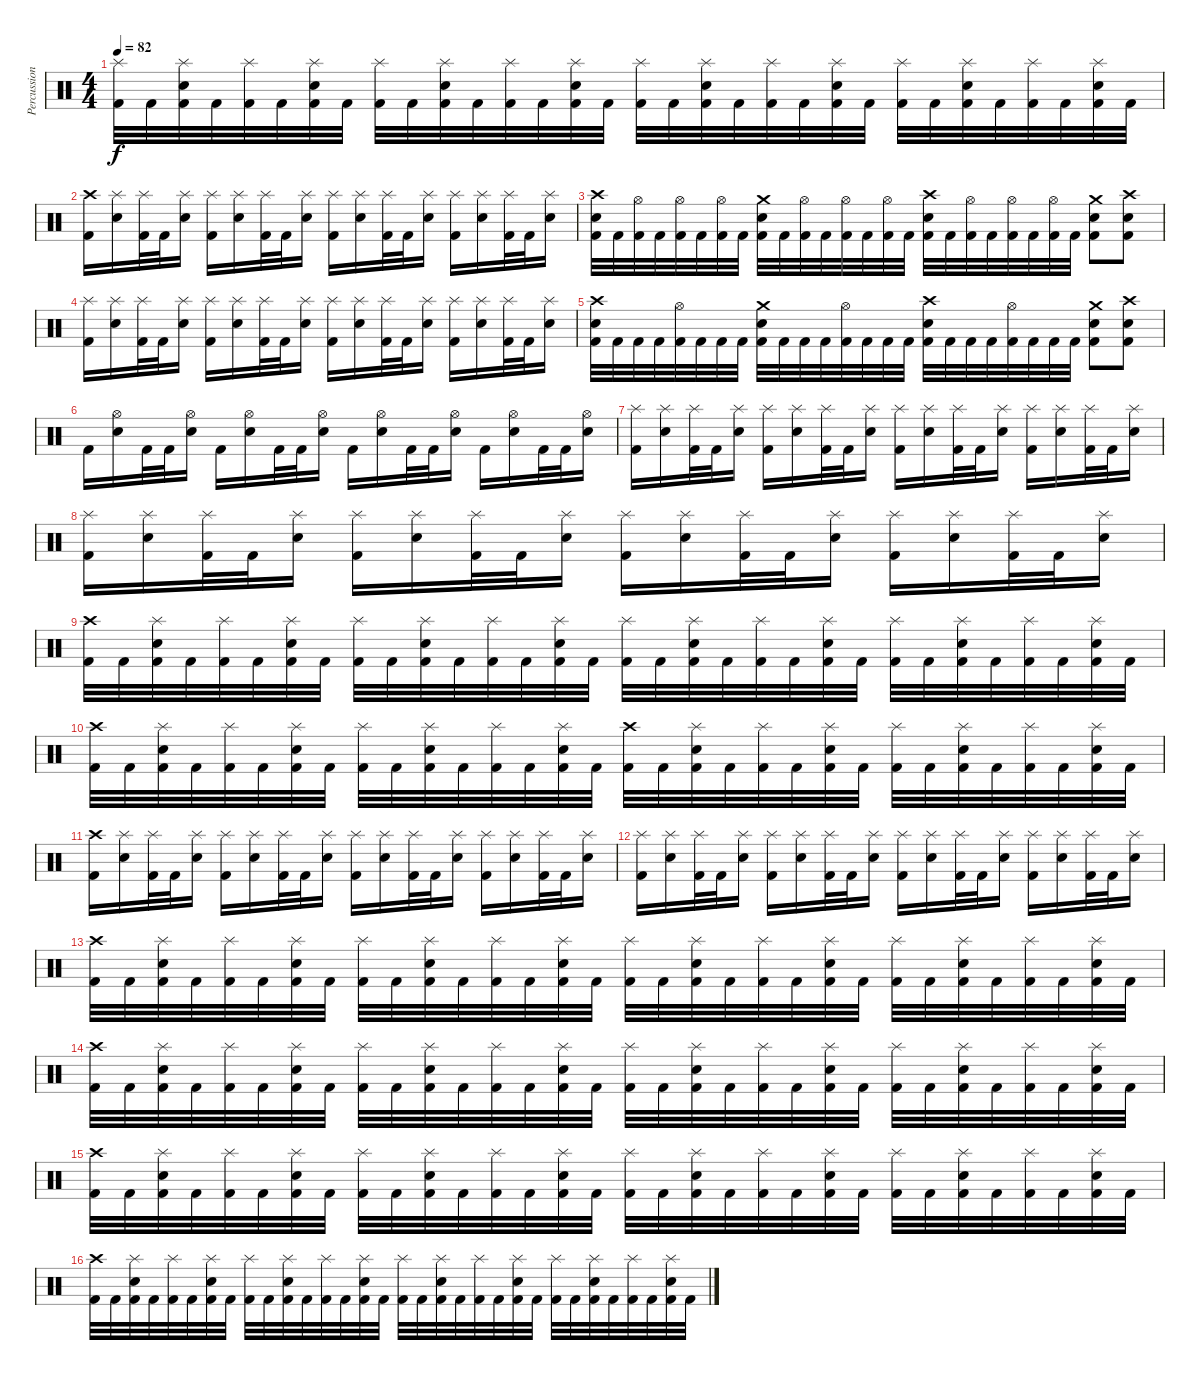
\track ("Percussion" "Percussion") {instrument percussion}
\staff {score}
\articulation defaults
\ts (4 4)
\tempo 82
\clef neutral
\ks c
("Splash (hit)" "Kick (hit) 2").32{dy f} "Kick (hit) 2".32 ("Splash (hit)" "Electric Snare (hit)" "Kick (hit) 2").32 "Kick (hit) 2".32 ("Splash (hit)" "Kick (hit) 2").32 "Kick (hit) 2".32 ("Splash (hit)" "Electric Snare (hit)" "Kick (hit) 2").32 "Kick (hit) 2".32 ("Splash (hit)" "Kick (hit) 2").32 "Kick (hit) 2".32 ("Splash (hit)" "Electric Snare (hit)" "Kick (hit) 2").32 "Kick (hit) 2".32 ("Splash (hit)" "Kick (hit) 2").32 "Kick (hit) 2".32 ("Splash (hit)" "Electric Snare (hit)" "Kick (hit) 2").32 "Kick (hit) 2".32 ("Splash (hit)" "Kick (hit) 2").32 "Kick (hit) 2".32 ("Splash (hit)" "Electric Snare (hit)" "Kick (hit) 2").32 "Kick (hit) 2".32 ("Splash (hit)" "Kick (hit) 2").32 "Kick (hit) 2".32 ("Splash (hit)" "Electric Snare (hit)" "Kick (hit) 2").32 "Kick (hit) 2".32 ("Splash (hit)" "Kick (hit) 2").32 "Kick (hit) 2".32 ("Splash (hit)" "Electric Snare (hit)" "Kick (hit) 2").32 "Kick (hit) 2".32 ("Splash (hit)" "Kick (hit) 2").32 "Kick (hit) 2".32 ("Splash (hit)" "Electric Snare (hit)" "Kick (hit) 2").32 "Kick (hit) 2".32 |
("Crash high (hit)" "Kick (hit) 2").16 ("Splash (hit)" "Electric Snare (hit)").16 ("Splash (hit)" "Kick (hit) 2").32 "Kick (hit) 2".32 ("Splash (hit)" "Electric Snare (hit)").16 ("Splash (hit)" "Kick (hit) 2").16 ("Splash (hit)" "Electric Snare (hit)").16 ("Splash (hit)" "Kick (hit) 2").32 "Kick (hit) 2".32 ("Splash (hit)" "Electric Snare (hit)").16 ("Splash (hit)" "Kick (hit) 2").16 ("Splash (hit)" "Electric Snare (hit)").16 ("Splash (hit)" "Kick (hit) 2").32 "Kick (hit) 2".32 ("Splash (hit)" "Electric Snare (hit)").16 ("Splash (hit)" "Kick (hit) 2").16 ("Splash (hit)" "Electric Snare (hit)").16 ("Splash (hit)" "Kick (hit) 2").32 "Kick (hit) 2".32 ("Splash (hit)" "Electric Snare (hit)").16 |
\section ("" "")
("Crash high (hit)" "Electric Snare (hit)" "Kick (hit) 2").32 "Kick (hit) 2".32 ("Hi-Hat (open)" "Kick (hit) 2").32 "Kick (hit) 2".32 ("Hi-Hat (open)" "Kick (hit) 2").32 "Kick (hit) 2".32 ("Hi-Hat (open)" "Kick (hit) 2").32 "Kick (hit) 2".32 ("Crash medium (hit)" "Electric Snare (hit)" "Kick (hit) 2").32 "Kick (hit) 2".32 ("Hi-Hat (open)" "Kick (hit) 2").32 "Kick (hit) 2".32 ("Hi-Hat (open)" "Kick (hit) 2").32 "Kick (hit) 2".32 ("Hi-Hat (open)" "Kick (hit) 2").32 "Kick (hit) 2".32 ("Crash high (hit)" "Electric Snare (hit)" "Kick (hit) 2").32 "Kick (hit) 2".32 ("Hi-Hat (open)" "Kick (hit) 2").32 "Kick (hit) 2".32 ("Hi-Hat (open)" "Kick (hit) 2").32 "Kick (hit) 2".32 ("Hi-Hat (open)" "Kick (hit) 2").32 "Kick (hit) 2".32 ("Crash medium (hit)" "Electric Snare (hit)" "Kick (hit) 2").8 ("Crash high (hit)" "Electric Snare (hit)" "Kick (hit) 2").8 |
("Splash (hit)" "Kick (hit) 2").16 ("Splash (hit)" "Electric Snare (hit)").16 ("Splash (hit)" "Kick (hit) 2").32 "Kick (hit) 2".32 ("Splash (hit)" "Electric Snare (hit)").16 ("Splash (hit)" "Kick (hit) 2").16 ("Splash (hit)" "Electric Snare (hit)").16 ("Splash (hit)" "Kick (hit) 2").32 "Kick (hit) 2".32 ("Splash (hit)" "Electric Snare (hit)").16 ("Splash (hit)" "Kick (hit) 2").16 ("Splash (hit)" "Electric Snare (hit)").16 ("Splash (hit)" "Kick (hit) 2").32 "Kick (hit) 2".32 ("Splash (hit)" "Electric Snare (hit)").16 ("Splash (hit)" "Kick (hit) 2").16 ("Splash (hit)" "Electric Snare (hit)").16 ("Splash (hit)" "Kick (hit) 2").32 "Kick (hit) 2".32 ("Splash (hit)" "Electric Snare (hit)").16 |
("Crash high (hit)" "Electric Snare (hit)" "Kick (hit) 2").32 "Kick (hit) 2".32 "Kick (hit) 2".32 "Kick (hit) 2".32 ("Hi-Hat (open)" "Kick (hit) 2").32 "Kick (hit) 2".32 "Kick (hit) 2".32 "Kick (hit) 2".32 ("Crash medium (hit)" "Electric Snare (hit)" "Kick (hit) 2").32 "Kick (hit) 2".32 "Kick (hit) 2".32 "Kick (hit) 2".32 ("Hi-Hat (open)" "Kick (hit) 2").32 "Kick (hit) 2".32 "Kick (hit) 2".32 "Kick (hit) 2".32 ("Crash high (hit)" "Electric Snare (hit)" "Kick (hit) 2").32 "Kick (hit) 2".32 "Kick (hit) 2".32 "Kick (hit) 2".32 ("Hi-Hat (open)" "Kick (hit) 2").32 "Kick (hit) 2".32 "Kick (hit) 2".32 "Kick (hit) 2".32 ("Crash medium (hit)" "Electric Snare (hit)" "Kick (hit) 2").8 ("Crash high (hit)" "Electric Snare (hit)" "Kick (hit) 2").8 |
"Kick (hit) 2".16 ("Hi-Hat (open)" "Electric Snare (hit)").16 "Kick (hit) 2".32 "Kick (hit) 2".32 ("Hi-Hat (open)" "Electric Snare (hit)").16 "Kick (hit) 2".16 ("Hi-Hat (open)" "Electric Snare (hit)").16 "Kick (hit) 2".32 "Kick (hit) 2".32 ("Hi-Hat (open)" "Electric Snare (hit)").16 "Kick (hit) 2".16 ("Hi-Hat (open)" "Electric Snare (hit)").16 "Kick (hit) 2".32 "Kick (hit) 2".32 ("Hi-Hat (open)" "Electric Snare (hit)").16 "Kick (hit) 2".16 ("Hi-Hat (open)" "Electric Snare (hit)").16 "Kick (hit) 2".32 "Kick (hit) 2".32 ("Hi-Hat (open)" "Electric Snare (hit)").16 |
\section ("" "")
("Splash (hit)" "Kick (hit) 2").16 ("Splash (hit)" "Electric Snare (hit)").16 ("Splash (hit)" "Kick (hit) 2").32 "Kick (hit) 2".32 ("Splash (hit)" "Electric Snare (hit)").16 ("Splash (hit)" "Kick (hit) 2").16 ("Splash (hit)" "Electric Snare (hit)").16 ("Splash (hit)" "Kick (hit) 2").32 "Kick (hit) 2".32 ("Splash (hit)" "Electric Snare (hit)").16 ("Splash (hit)" "Kick (hit) 2").16 ("Splash (hit)" "Electric Snare (hit)").16 ("Splash (hit)" "Kick (hit) 2").32 "Kick (hit) 2".32 ("Splash (hit)" "Electric Snare (hit)").16 ("Splash (hit)" "Kick (hit) 2").16 ("Splash (hit)" "Electric Snare (hit)").16 ("Splash (hit)" "Kick (hit) 2").32 "Kick (hit) 2".32 ("Splash (hit)" "Electric Snare (hit)").16 |
("Splash (hit)" "Kick (hit) 2").16 ("Splash (hit)" "Electric Snare (hit)").16 ("Splash (hit)" "Kick (hit) 2").32 "Kick (hit) 2".32 ("Splash (hit)" "Electric Snare (hit)").16 ("Splash (hit)" "Kick (hit) 2").16 ("Splash (hit)" "Electric Snare (hit)").16 ("Splash (hit)" "Kick (hit) 2").32 "Kick (hit) 2".32 ("Splash (hit)" "Electric Snare (hit)").16 ("Splash (hit)" "Kick (hit) 2").16 ("Splash (hit)" "Electric Snare (hit)").16 ("Splash (hit)" "Kick (hit) 2").32 "Kick (hit) 2".32 ("Splash (hit)" "Electric Snare (hit)").16 ("Splash (hit)" "Kick (hit) 2").16 ("Splash (hit)" "Electric Snare (hit)").16 ("Splash (hit)" "Kick (hit) 2").32 "Kick (hit) 2".32 ("Splash (hit)" "Electric Snare (hit)").16 |
("Crash high (hit)" "Kick (hit) 2").32 "Kick (hit) 2".32 ("Splash (hit)" "Electric Snare (hit)" "Kick (hit) 2").32 "Kick (hit) 2".32 ("Splash (hit)" "Kick (hit) 2").32 "Kick (hit) 2".32 ("Splash (hit)" "Electric Snare (hit)" "Kick (hit) 2").32 "Kick (hit) 2".32 ("Splash (hit)" "Kick (hit) 2").32 "Kick (hit) 2".32 ("Splash (hit)" "Electric Snare (hit)" "Kick (hit) 2").32 "Kick (hit) 2".32 ("Splash (hit)" "Kick (hit) 2").32 "Kick (hit) 2".32 ("Splash (hit)" "Electric Snare (hit)" "Kick (hit) 2").32 "Kick (hit) 2".32 ("Splash (hit)" "Kick (hit) 2").32 "Kick (hit) 2".32 ("Splash (hit)" "Electric Snare (hit)" "Kick (hit) 2").32 "Kick (hit) 2".32 ("Splash (hit)" "Kick (hit) 2").32 "Kick (hit) 2".32 ("Splash (hit)" "Electric Snare (hit)" "Kick (hit) 2").32 "Kick (hit) 2".32 ("Splash (hit)" "Kick (hit) 2").32 "Kick (hit) 2".32 ("Splash (hit)" "Electric Snare (hit)" "Kick (hit) 2").32 "Kick (hit) 2".32 ("Splash (hit)" "Kick (hit) 2").32 "Kick (hit) 2".32 ("Splash (hit)" "Electric Snare (hit)" "Kick (hit) 2").32 "Kick (hit) 2".32 |
("Crash high (hit)" "Kick (hit) 2").32 "Kick (hit) 2".32 ("Splash (hit)" "Electric Snare (hit)" "Kick (hit) 2").32 "Kick (hit) 2".32 ("Splash (hit)" "Kick (hit) 2").32 "Kick (hit) 2".32 ("Splash (hit)" "Electric Snare (hit)" "Kick (hit) 2").32 "Kick (hit) 2".32 ("Splash (hit)" "Kick (hit) 2").32 "Kick (hit) 2".32 ("Splash (hit)" "Electric Snare (hit)" "Kick (hit) 2").32 "Kick (hit) 2".32 ("Splash (hit)" "Kick (hit) 2").32 "Kick (hit) 2".32 ("Splash (hit)" "Electric Snare (hit)" "Kick (hit) 2").32 "Kick (hit) 2".32 ("Crash high (hit)" "Kick (hit) 2").32 "Kick (hit) 2".32 ("Splash (hit)" "Electric Snare (hit)" "Kick (hit) 2").32 "Kick (hit) 2".32 ("Splash (hit)" "Kick (hit) 2").32 "Kick (hit) 2".32 ("Splash (hit)" "Electric Snare (hit)" "Kick (hit) 2").32 "Kick (hit) 2".32 ("Splash (hit)" "Kick (hit) 2").32 "Kick (hit) 2".32 ("Splash (hit)" "Electric Snare (hit)" "Kick (hit) 2").32 "Kick (hit) 2".32 ("Splash (hit)" "Kick (hit) 2").32 "Kick (hit) 2".32 ("Splash (hit)" "Electric Snare (hit)" "Kick (hit) 2").32 "Kick (hit) 2".32 |
\section ("" "")
("Crash high (hit)" "Kick (hit) 2").16 ("Splash (hit)" "Electric Snare (hit)").16 ("Splash (hit)" "Kick (hit) 2").32 "Kick (hit) 2".32 ("Splash (hit)" "Electric Snare (hit)").16 ("Splash (hit)" "Kick (hit) 2").16 ("Splash (hit)" "Electric Snare (hit)").16 ("Splash (hit)" "Kick (hit) 2").32 "Kick (hit) 2".32 ("Splash (hit)" "Electric Snare (hit)").16 ("Splash (hit)" "Kick (hit) 2").16 ("Splash (hit)" "Electric Snare (hit)").16 ("Splash (hit)" "Kick (hit) 2").32 "Kick (hit) 2".32 ("Splash (hit)" "Electric Snare (hit)").16 ("Splash (hit)" "Kick (hit) 2").16 ("Splash (hit)" "Electric Snare (hit)").16 ("Splash (hit)" "Kick (hit) 2").32 "Kick (hit) 2".32 ("Splash (hit)" "Electric Snare (hit)").16 |
("Splash (hit)" "Kick (hit) 2").16 ("Splash (hit)" "Electric Snare (hit)").16 ("Splash (hit)" "Kick (hit) 2").32 "Kick (hit) 2".32 ("Splash (hit)" "Electric Snare (hit)").16 ("Splash (hit)" "Kick (hit) 2").16 ("Splash (hit)" "Electric Snare (hit)").16 ("Splash (hit)" "Kick (hit) 2").32 "Kick (hit) 2".32 ("Splash (hit)" "Electric Snare (hit)").16 ("Splash (hit)" "Kick (hit) 2").16 ("Splash (hit)" "Electric Snare (hit)").16 ("Splash (hit)" "Kick (hit) 2").32 "Kick (hit) 2".32 ("Splash (hit)" "Electric Snare (hit)").16 ("Splash (hit)" "Kick (hit) 2").16 ("Splash (hit)" "Electric Snare (hit)").16 ("Splash (hit)" "Kick (hit) 2").32 "Kick (hit) 2".32 ("Splash (hit)" "Electric Snare (hit)").16 |
("Crash high (hit)" "Kick (hit) 2").32 "Kick (hit) 2".32 ("Splash (hit)" "Electric Snare (hit)" "Kick (hit) 2").32 "Kick (hit) 2".32 ("Splash (hit)" "Kick (hit) 2").32 "Kick (hit) 2".32 ("Splash (hit)" "Electric Snare (hit)" "Kick (hit) 2").32 "Kick (hit) 2".32 ("Splash (hit)" "Kick (hit) 2").32 "Kick (hit) 2".32 ("Splash (hit)" "Electric Snare (hit)" "Kick (hit) 2").32 "Kick (hit) 2".32 ("Splash (hit)" "Kick (hit) 2").32 "Kick (hit) 2".32 ("Splash (hit)" "Electric Snare (hit)" "Kick (hit) 2").32 "Kick (hit) 2".32 ("Splash (hit)" "Kick (hit) 2").32 "Kick (hit) 2".32 ("Splash (hit)" "Electric Snare (hit)" "Kick (hit) 2").32 "Kick (hit) 2".32 ("Splash (hit)" "Kick (hit) 2").32 "Kick (hit) 2".32 ("Splash (hit)" "Electric Snare (hit)" "Kick (hit) 2").32 "Kick (hit) 2".32 ("Splash (hit)" "Kick (hit) 2").32 "Kick (hit) 2".32 ("Splash (hit)" "Electric Snare (hit)" "Kick (hit) 2").32 "Kick (hit) 2".32 ("Splash (hit)" "Kick (hit) 2").32 "Kick (hit) 2".32 ("Splash (hit)" "Electric Snare (hit)" "Kick (hit) 2").32 "Kick (hit) 2".32 |
("Crash high (hit)" "Kick (hit) 2").32 "Kick (hit) 2".32 ("Splash (hit)" "Electric Snare (hit)" "Kick (hit) 2").32 "Kick (hit) 2".32 ("Splash (hit)" "Kick (hit) 2").32 "Kick (hit) 2".32 ("Splash (hit)" "Electric Snare (hit)" "Kick (hit) 2").32 "Kick (hit) 2".32 ("Splash (hit)" "Kick (hit) 2").32 "Kick (hit) 2".32 ("Splash (hit)" "Electric Snare (hit)" "Kick (hit) 2").32 "Kick (hit) 2".32 ("Splash (hit)" "Kick (hit) 2").32 "Kick (hit) 2".32 ("Splash (hit)" "Electric Snare (hit)" "Kick (hit) 2").32 "Kick (hit) 2".32 ("Splash (hit)" "Kick (hit) 2").32 "Kick (hit) 2".32 ("Splash (hit)" "Electric Snare (hit)" "Kick (hit) 2").32 "Kick (hit) 2".32 ("Splash (hit)" "Kick (hit) 2").32 "Kick (hit) 2".32 ("Splash (hit)" "Electric Snare (hit)" "Kick (hit) 2").32 "Kick (hit) 2".32 ("Splash (hit)" "Kick (hit) 2").32 "Kick (hit) 2".32 ("Splash (hit)" "Electric Snare (hit)" "Kick (hit) 2").32 "Kick (hit) 2".32 ("Splash (hit)" "Kick (hit) 2").32 "Kick (hit) 2".32 ("Splash (hit)" "Electric Snare (hit)" "Kick (hit) 2").32 "Kick (hit) 2".32 |
("Crash high (hit)" "Kick (hit) 2").32 "Kick (hit) 2".32 ("Splash (hit)" "Electric Snare (hit)" "Kick (hit) 2").32 "Kick (hit) 2".32 ("Splash (hit)" "Kick (hit) 2").32 "Kick (hit) 2".32 ("Splash (hit)" "Electric Snare (hit)" "Kick (hit) 2").32 "Kick (hit) 2".32 ("Splash (hit)" "Kick (hit) 2").32 "Kick (hit) 2".32 ("Splash (hit)" "Electric Snare (hit)" "Kick (hit) 2").32 "Kick (hit) 2".32 ("Splash (hit)" "Kick (hit) 2").32 "Kick (hit) 2".32 ("Splash (hit)" "Electric Snare (hit)" "Kick (hit) 2").32 "Kick (hit) 2".32 ("Splash (hit)" "Kick (hit) 2").32 "Kick (hit) 2".32 ("Splash (hit)" "Electric Snare (hit)" "Kick (hit) 2").32 "Kick (hit) 2".32 ("Splash (hit)" "Kick (hit) 2").32 "Kick (hit) 2".32 ("Splash (hit)" "Electric Snare (hit)" "Kick (hit) 2").32 "Kick (hit) 2".32 ("Splash (hit)" "Kick (hit) 2").32 "Kick (hit) 2".32 ("Splash (hit)" "Electric Snare (hit)" "Kick (hit) 2").32 "Kick (hit) 2".32 ("Splash (hit)" "Kick (hit) 2").32 "Kick (hit) 2".32 ("Splash (hit)" "Electric Snare (hit)" "Kick (hit) 2").32 "Kick (hit) 2".32 |
("Crash high (hit)" "Kick (hit) 2").32 "Kick (hit) 2".32 ("Splash (hit)" "Electric Snare (hit)" "Kick (hit) 2").32 "Kick (hit) 2".32 ("Splash (hit)" "Kick (hit) 2").32 "Kick (hit) 2".32 ("Splash (hit)" "Electric Snare (hit)" "Kick (hit) 2").32 "Kick (hit) 2".32 ("Splash (hit)" "Kick (hit) 2").32 "Kick (hit) 2".32 ("Splash (hit)" "Electric Snare (hit)" "Kick (hit) 2").32 "Kick (hit) 2".32 ("Splash (hit)" "Kick (hit) 2").32 "Kick (hit) 2".32 ("Splash (hit)" "Electric Snare (hit)" "Kick (hit) 2").32 "Kick (hit) 2".32 ("Splash (hit)" "Kick (hit) 2").32 "Kick (hit) 2".32 ("Splash (hit)" "Electric Snare (hit)" "Kick (hit) 2").32 "Kick (hit) 2".32 ("Splash (hit)" "Kick (hit) 2").32 "Kick (hit) 2".32 ("Splash (hit)" "Electric Snare (hit)" "Kick (hit) 2").32 "Kick (hit) 2".32 ("Splash (hit)" "Kick (hit) 2").32 "Kick (hit) 2".32 ("Splash (hit)" "Electric Snare (hit)" "Kick (hit) 2").32 "Kick (hit) 2".32 ("Splash (hit)" "Kick (hit) 2").32 "Kick (hit) 2".32 ("Splash (hit)" "Electric Snare (hit)" "Kick (hit) 2").32 "Kick (hit) 2".32
